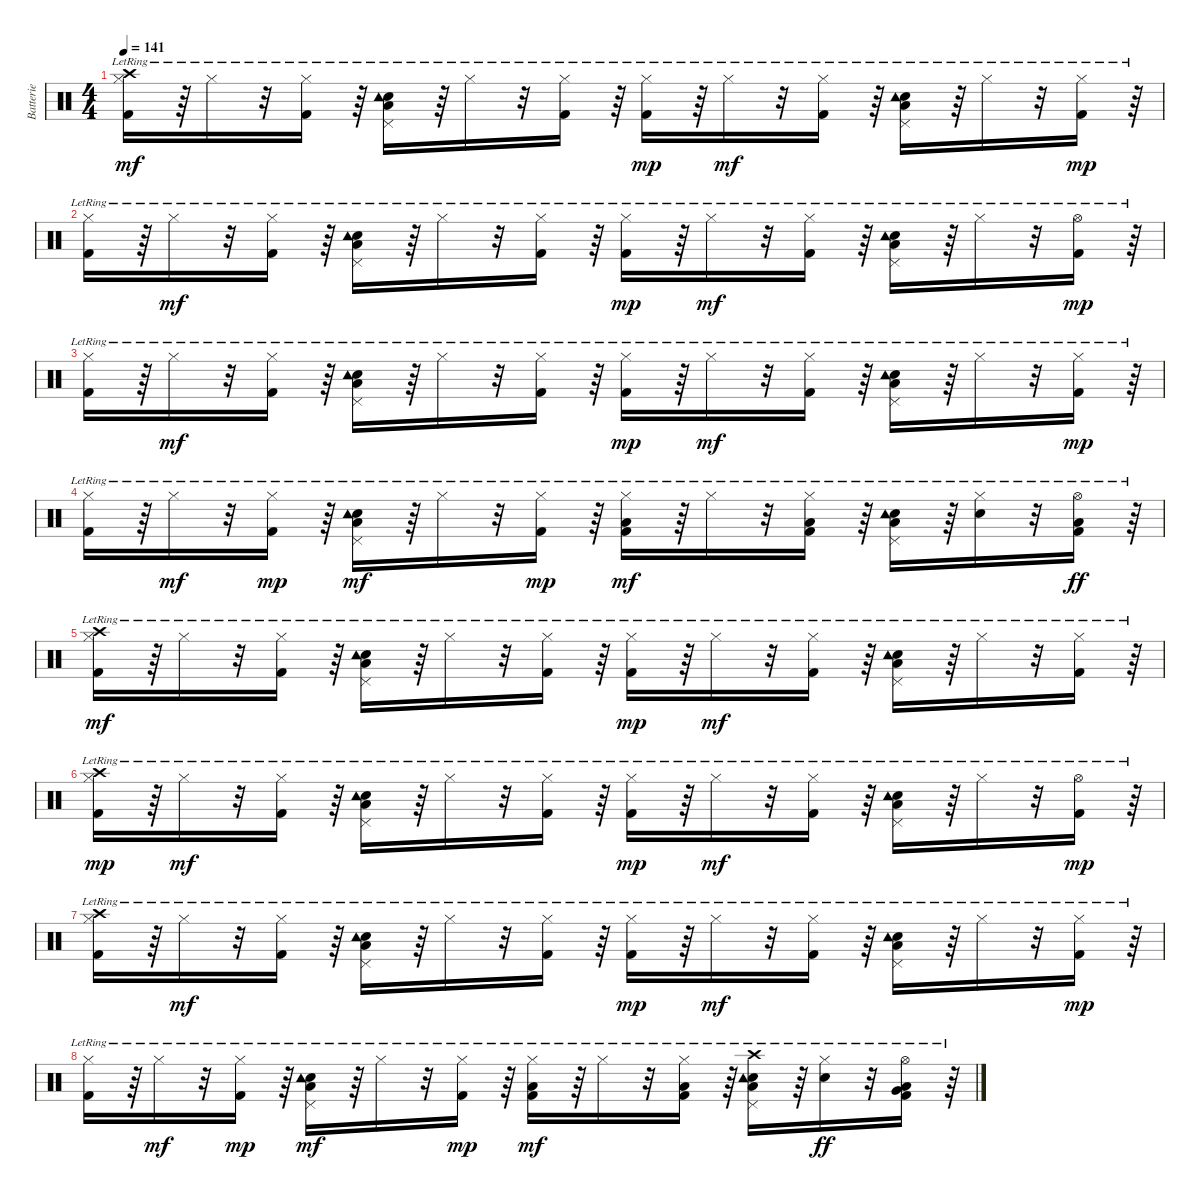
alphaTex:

\track ("Batterie" "Batterie") {instrument percussion}
\staff {score}
\articulation defaults
\ts (4 4)
\tempo 141
\clef neutral
\ks c
("Hi-Hat (closed)"{lr} "Crash high (hit)"{lr} "Kick (hit) 2"{lr}).16{dy mf} r.64 "Hi-Hat (closed)"{lr}.16 r.32 ("Hi-Hat (closed)"{lr} "Kick (hit) 2"{lr}).16 r.64 ("Pedal Hi-Hat (hit)"{lr} "Snare (hit) 2"{lr} "Low Floor Tom (hit)"{lr} "Tambourine (hit)"{lr}).16 r.64 "Hi-Hat (closed)"{lr}.16 r.32 ("Hi-Hat (closed)"{lr} "Kick (hit) 2"{lr}).16 r.64 ("Hi-Hat (closed)"{lr} "Kick (hit) 2"{lr}).16{dy mp} r.64 "Hi-Hat (closed)"{lr}.16{dy mf} r.32 ("Hi-Hat (closed)"{lr} "Kick (hit) 2"{lr}).16 r.64 ("Pedal Hi-Hat (hit)"{lr} "Snare (hit) 2"{lr} "Low Floor Tom (hit)"{lr} "Tambourine (hit)"{lr}).16 r.64 "Hi-Hat (closed)"{lr}.16 r.32 ("Hi-Hat (closed)"{lr} "Kick (hit) 2"{lr}).16{dy mp} r.64 |
("Hi-Hat (closed)"{lr} "Kick (hit) 2"{lr}).16 r.64 "Hi-Hat (closed)"{lr}.16{dy mf} r.32 ("Hi-Hat (closed)"{lr} "Kick (hit) 2"{lr}).16 r.64 ("Pedal Hi-Hat (hit)"{lr} "Snare (hit) 2"{lr} "Low Floor Tom (hit)"{lr} "Tambourine (hit)"{lr}).16 r.64 "Hi-Hat (closed)"{lr}.16 r.32 ("Hi-Hat (closed)"{lr} "Kick (hit) 2"{lr}).16 r.64 ("Hi-Hat (closed)"{lr} "Kick (hit) 2"{lr}).16{dy mp} r.64 "Hi-Hat (closed)"{lr}.16{dy mf} r.32 ("Hi-Hat (closed)"{lr} "Kick (hit) 2"{lr}).16 r.64 ("Pedal Hi-Hat (hit)"{lr} "Snare (hit) 2"{lr} "Low Floor Tom (hit)"{lr} "Tambourine (hit)"{lr}).16 r.64 "Hi-Hat (closed)"{lr}.16 r.32 ("Hi-Hat (open)"{lr} "Kick (hit) 2"{lr}).16{dy mp} r.64 |
("Hi-Hat (closed)"{lr} "Kick (hit) 2"{lr}).16 r.64 "Hi-Hat (closed)"{lr}.16{dy mf} r.32 ("Hi-Hat (closed)"{lr} "Kick (hit) 2"{lr}).16 r.64 ("Pedal Hi-Hat (hit)"{lr} "Snare (hit) 2"{lr} "Low Floor Tom (hit)"{lr} "Tambourine (hit)"{lr}).16 r.64 "Hi-Hat (closed)"{lr}.16 r.32 ("Hi-Hat (closed)"{lr} "Kick (hit) 2"{lr}).16 r.64 ("Hi-Hat (closed)"{lr} "Kick (hit) 2"{lr}).16{dy mp} r.64 "Hi-Hat (closed)"{lr}.16{dy mf} r.32 ("Hi-Hat (closed)"{lr} "Kick (hit) 2"{lr}).16 r.64 ("Pedal Hi-Hat (hit)"{lr} "Snare (hit) 2"{lr} "Low Floor Tom (hit)"{lr} "Tambourine (hit)"{lr}).16 r.64 "Hi-Hat (closed)"{lr}.16 r.32 ("Hi-Hat (closed)"{lr} "Kick (hit) 2"{lr}).16{dy mp} r.64 |
("Hi-Hat (closed)"{lr} "Kick (hit) 2"{lr}).16 r.64 "Hi-Hat (closed)"{lr}.16{dy mf} r.32 ("Hi-Hat (closed)"{lr} "Kick (hit) 2"{lr}).16{dy mp} r.64 ("Pedal Hi-Hat (hit)"{lr} "Snare (hit) 2"{lr} "Low Floor Tom (hit)"{lr} "Tambourine (hit)"{lr}).16{dy mf} r.64 "Hi-Hat (closed)"{lr}.16 r.32 ("Hi-Hat (closed)"{lr} "Kick (hit) 2"{lr}).16{dy mp} r.64 ("Hi-Hat (closed)"{lr} "Kick (hit) 2"{lr} "Low Floor Tom (hit)"{lr}).16{dy mf} r.64 "Hi-Hat (closed)"{lr}.16 r.32 ("Hi-Hat (closed)"{lr} "Kick (hit) 2"{lr} "Low Floor Tom (hit)"{lr}).16 r.64 ("Pedal Hi-Hat (hit)"{lr} "Snare (hit) 2"{lr} "Low Floor Tom (hit)"{lr} "Tambourine (hit)"{lr}).16 r.64 ("Hi-Hat (closed)"{lr} "Snare (hit) 2"{lr}).16 r.32 ("Hi-Hat (open)"{lr} "Kick (hit) 2"{lr} "Low Floor Tom (hit)"{lr}).16{dy ff} r.64 |
("Hi-Hat (closed)"{lr} "Crash high (hit)"{lr} "Kick (hit) 2"{lr}).16{dy mf} r.64 "Hi-Hat (closed)"{lr}.16 r.32 ("Hi-Hat (closed)"{lr} "Kick (hit) 2"{lr}).16 r.64 ("Pedal Hi-Hat (hit)"{lr} "Snare (hit) 2"{lr} "Low Floor Tom (hit)"{lr} "Tambourine (hit)"{lr}).16 r.64 "Hi-Hat (closed)"{lr}.16 r.32 ("Hi-Hat (closed)"{lr} "Kick (hit) 2"{lr}).16 r.64 ("Hi-Hat (closed)"{lr} "Kick (hit) 2"{lr}).16{dy mp} r.64 "Hi-Hat (closed)"{lr}.16{dy mf} r.32 ("Hi-Hat (closed)"{lr} "Kick (hit) 2"{lr}).16 r.64 ("Pedal Hi-Hat (hit)"{lr} "Snare (hit) 2"{lr} "Low Floor Tom (hit)"{lr} "Tambourine (hit)"{lr}).16 r.64 "Hi-Hat (closed)"{lr}.16 r.32 ("Hi-Hat (closed)"{lr} "Kick (hit) 2"{lr}).16 r.64 |
("Hi-Hat (closed)"{lr} "Crash high (hit)"{lr} "Kick (hit) 2"{lr}).16{dy mp} r.64 "Hi-Hat (closed)"{lr}.16{dy mf} r.32 ("Hi-Hat (closed)"{lr} "Kick (hit) 2"{lr}).16 r.64 ("Pedal Hi-Hat (hit)"{lr} "Snare (hit) 2"{lr} "Low Floor Tom (hit)"{lr} "Tambourine (hit)"{lr}).16 r.64 "Hi-Hat (closed)"{lr}.16 r.32 ("Hi-Hat (closed)"{lr} "Kick (hit) 2"{lr}).16 r.64 ("Hi-Hat (closed)"{lr} "Kick (hit) 2"{lr}).16{dy mp} r.64 "Hi-Hat (closed)"{lr}.16{dy mf} r.32 ("Hi-Hat (closed)"{lr} "Kick (hit) 2"{lr}).16 r.64 ("Pedal Hi-Hat (hit)"{lr} "Snare (hit) 2"{lr} "Low Floor Tom (hit)"{lr} "Tambourine (hit)"{lr}).16 r.64 "Hi-Hat (closed)"{lr}.16 r.32 ("Hi-Hat (open)"{lr} "Kick (hit) 2"{lr}).16{dy mp} r.64 |
("Hi-Hat (closed)"{lr} "Crash high (hit)"{lr} "Kick (hit) 2"{lr}).16 r.64 "Hi-Hat (closed)"{lr}.16{dy mf} r.32 ("Hi-Hat (closed)"{lr} "Kick (hit) 2"{lr}).16 r.64 ("Pedal Hi-Hat (hit)"{lr} "Snare (hit) 2"{lr} "Low Floor Tom (hit)"{lr} "Tambourine (hit)"{lr}).16 r.64 "Hi-Hat (closed)"{lr}.16 r.32 ("Hi-Hat (closed)"{lr} "Kick (hit) 2"{lr}).16 r.64 ("Hi-Hat (closed)"{lr} "Kick (hit) 2"{lr}).16{dy mp} r.64 "Hi-Hat (closed)"{lr}.16{dy mf} r.32 ("Hi-Hat (closed)"{lr} "Kick (hit) 2"{lr}).16 r.64 ("Pedal Hi-Hat (hit)"{lr} "Snare (hit) 2"{lr} "Low Floor Tom (hit)"{lr} "Tambourine (hit)"{lr}).16 r.64 "Hi-Hat (closed)"{lr}.16 r.32 ("Hi-Hat (closed)"{lr} "Kick (hit) 2"{lr}).16{dy mp} r.64 |
("Hi-Hat (closed)"{lr} "Kick (hit) 2"{lr}).16 r.64 "Hi-Hat (closed)"{lr}.16{dy mf} r.32 ("Hi-Hat (closed)"{lr} "Kick (hit) 2"{lr}).16{dy mp} r.64 ("Pedal Hi-Hat (hit)"{lr} "Snare (hit) 2"{lr} "Low Floor Tom (hit)"{lr} "Tambourine (hit)"{lr}).16{dy mf} r.64 "Hi-Hat (closed)"{lr}.16 r.32 ("Hi-Hat (closed)"{lr} "Kick (hit) 2"{lr}).16{dy mp} r.64 ("Hi-Hat (closed)"{lr} "Kick (hit) 2"{lr} "Low Floor Tom (hit)"{lr}).16{dy mf} r.64 "Hi-Hat (closed)"{lr}.16 r.32 ("Hi-Hat (closed)"{lr} "Kick (hit) 2"{lr} "Low Floor Tom (hit)"{lr}).16 r.64 ("Pedal Hi-Hat (hit)"{lr} "Crash high (hit)"{lr} "Snare (hit) 2"{lr} "Low Floor Tom (hit)"{lr} "Tambourine (hit)"{lr}).16 r.64 ("Hi-Hat (closed)"{lr} "Snare (hit) 2"{lr}).16{dy ff} r.32 ("Very Low Tom (hit)"{lr} "Hi-Hat (open)"{lr} "Kick (hit) 2"{lr} "Low Floor Tom (hit)"{lr}).16 r.64
